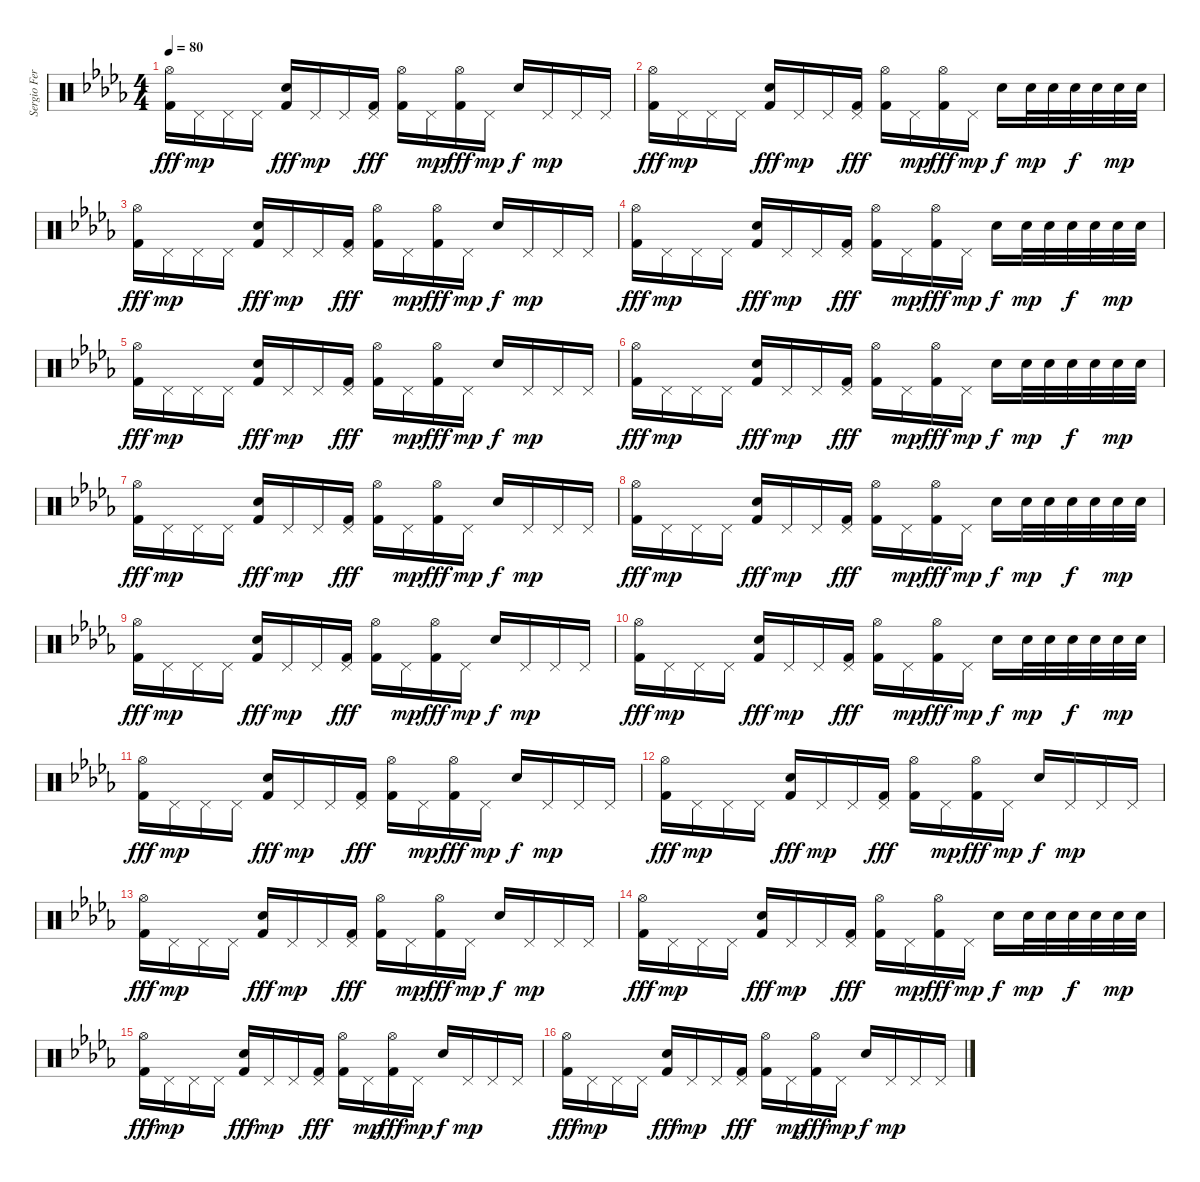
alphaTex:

\track ("Sergio Fernandez \"Taz\"" "Sergio Fer") {instrument percussion}
\staff {score}
\articulation defaults
\ts (4 4)
\tempo 80
\clef neutral
\ks bbminor
("Hi-Hat (open)" "Kick (hit) 2").16{dy fff} "Pedal Hi-Hat (hit)".16{dy mp} "Pedal Hi-Hat (hit)".16 "Pedal Hi-Hat (hit)".16 ("Electric Snare (hit)" "Kick (hit) 2").16{dy fff} "Pedal Hi-Hat (hit)".16{dy mp} "Pedal Hi-Hat (hit)".16 ("Pedal Hi-Hat (hit)" "Kick (hit) 2").16{dy fff} ("Hi-Hat (open)" "Kick (hit) 2").16 "Pedal Hi-Hat (hit)".16{dy mp} ("Hi-Hat (open)" "Kick (hit) 2").16{dy fff} "Pedal Hi-Hat (hit)".16{dy mp} "Electric Snare (hit)".16{dy f} "Pedal Hi-Hat (hit)".16{dy mp} "Pedal Hi-Hat (hit)".16 "Pedal Hi-Hat (hit)".16 |
("Hi-Hat (open)" "Kick (hit) 2").16{dy fff} "Pedal Hi-Hat (hit)".16{dy mp} "Pedal Hi-Hat (hit)".16 "Pedal Hi-Hat (hit)".16 ("Electric Snare (hit)" "Kick (hit) 2").16{dy fff} "Pedal Hi-Hat (hit)".16{dy mp} "Pedal Hi-Hat (hit)".16 ("Pedal Hi-Hat (hit)" "Kick (hit) 2").16{dy fff} ("Hi-Hat (open)" "Kick (hit) 2").16 "Pedal Hi-Hat (hit)".16{dy mp} ("Hi-Hat (open)" "Kick (hit) 2").16{dy fff} "Pedal Hi-Hat (hit)".16{dy mp} "Snare (hit) 2".16{dy f} "Snare (hit) 2".32{dy mp} "Snare (hit) 2".32 "Snare (hit) 2".32{dy f} "Snare (hit) 2".32 "Snare (hit) 2".32{dy mp} "Snare (hit) 2".32 |
("Hi-Hat (open)" "Kick (hit) 2").16{dy fff} "Pedal Hi-Hat (hit)".16{dy mp} "Pedal Hi-Hat (hit)".16 "Pedal Hi-Hat (hit)".16 ("Electric Snare (hit)" "Kick (hit) 2").16{dy fff} "Pedal Hi-Hat (hit)".16{dy mp} "Pedal Hi-Hat (hit)".16 ("Pedal Hi-Hat (hit)" "Kick (hit) 2").16{dy fff} ("Hi-Hat (open)" "Kick (hit) 2").16 "Pedal Hi-Hat (hit)".16{dy mp} ("Hi-Hat (open)" "Kick (hit) 2").16{dy fff} "Pedal Hi-Hat (hit)".16{dy mp} "Electric Snare (hit)".16{dy f} "Pedal Hi-Hat (hit)".16{dy mp} "Pedal Hi-Hat (hit)".16 "Pedal Hi-Hat (hit)".16 |
("Hi-Hat (open)" "Kick (hit) 2").16{dy fff} "Pedal Hi-Hat (hit)".16{dy mp} "Pedal Hi-Hat (hit)".16 "Pedal Hi-Hat (hit)".16 ("Electric Snare (hit)" "Kick (hit) 2").16{dy fff} "Pedal Hi-Hat (hit)".16{dy mp} "Pedal Hi-Hat (hit)".16 ("Pedal Hi-Hat (hit)" "Kick (hit) 2").16{dy fff} ("Hi-Hat (open)" "Kick (hit) 2").16 "Pedal Hi-Hat (hit)".16{dy mp} ("Hi-Hat (open)" "Kick (hit) 2").16{dy fff} "Pedal Hi-Hat (hit)".16{dy mp} "Snare (hit) 2".16{dy f} "Snare (hit) 2".32{dy mp} "Snare (hit) 2".32 "Snare (hit) 2".32{dy f} "Snare (hit) 2".32 "Snare (hit) 2".32{dy mp} "Snare (hit) 2".32 |
("Hi-Hat (open)" "Kick (hit) 2").16{dy fff} "Pedal Hi-Hat (hit)".16{dy mp} "Pedal Hi-Hat (hit)".16 "Pedal Hi-Hat (hit)".16 ("Electric Snare (hit)" "Kick (hit) 2").16{dy fff} "Pedal Hi-Hat (hit)".16{dy mp} "Pedal Hi-Hat (hit)".16 ("Pedal Hi-Hat (hit)" "Kick (hit) 2").16{dy fff} ("Hi-Hat (open)" "Kick (hit) 2").16 "Pedal Hi-Hat (hit)".16{dy mp} ("Hi-Hat (open)" "Kick (hit) 2").16{dy fff} "Pedal Hi-Hat (hit)".16{dy mp} "Electric Snare (hit)".16{dy f} "Pedal Hi-Hat (hit)".16{dy mp} "Pedal Hi-Hat (hit)".16 "Pedal Hi-Hat (hit)".16 |
("Hi-Hat (open)" "Kick (hit) 2").16{dy fff} "Pedal Hi-Hat (hit)".16{dy mp} "Pedal Hi-Hat (hit)".16 "Pedal Hi-Hat (hit)".16 ("Electric Snare (hit)" "Kick (hit) 2").16{dy fff} "Pedal Hi-Hat (hit)".16{dy mp} "Pedal Hi-Hat (hit)".16 ("Pedal Hi-Hat (hit)" "Kick (hit) 2").16{dy fff} ("Hi-Hat (open)" "Kick (hit) 2").16 "Pedal Hi-Hat (hit)".16{dy mp} ("Hi-Hat (open)" "Kick (hit) 2").16{dy fff} "Pedal Hi-Hat (hit)".16{dy mp} "Snare (hit) 2".16{dy f} "Snare (hit) 2".32{dy mp} "Snare (hit) 2".32 "Snare (hit) 2".32{dy f} "Snare (hit) 2".32 "Snare (hit) 2".32{dy mp} "Snare (hit) 2".32 |
("Hi-Hat (open)" "Kick (hit) 2").16{dy fff} "Pedal Hi-Hat (hit)".16{dy mp} "Pedal Hi-Hat (hit)".16 "Pedal Hi-Hat (hit)".16 ("Electric Snare (hit)" "Kick (hit) 2").16{dy fff} "Pedal Hi-Hat (hit)".16{dy mp} "Pedal Hi-Hat (hit)".16 ("Pedal Hi-Hat (hit)" "Kick (hit) 2").16{dy fff} ("Hi-Hat (open)" "Kick (hit) 2").16 "Pedal Hi-Hat (hit)".16{dy mp} ("Hi-Hat (open)" "Kick (hit) 2").16{dy fff} "Pedal Hi-Hat (hit)".16{dy mp} "Electric Snare (hit)".16{dy f} "Pedal Hi-Hat (hit)".16{dy mp} "Pedal Hi-Hat (hit)".16 "Pedal Hi-Hat (hit)".16 |
("Hi-Hat (open)" "Kick (hit) 2").16{dy fff} "Pedal Hi-Hat (hit)".16{dy mp} "Pedal Hi-Hat (hit)".16 "Pedal Hi-Hat (hit)".16 ("Electric Snare (hit)" "Kick (hit) 2").16{dy fff} "Pedal Hi-Hat (hit)".16{dy mp} "Pedal Hi-Hat (hit)".16 ("Pedal Hi-Hat (hit)" "Kick (hit) 2").16{dy fff} ("Hi-Hat (open)" "Kick (hit) 2").16 "Pedal Hi-Hat (hit)".16{dy mp} ("Hi-Hat (open)" "Kick (hit) 2").16{dy fff} "Pedal Hi-Hat (hit)".16{dy mp} "Snare (hit) 2".16{dy f} "Snare (hit) 2".32{dy mp} "Snare (hit) 2".32 "Snare (hit) 2".32{dy f} "Snare (hit) 2".32 "Snare (hit) 2".32{dy mp} "Snare (hit) 2".32 |
("Hi-Hat (open)" "Kick (hit) 2").16{dy fff} "Pedal Hi-Hat (hit)".16{dy mp} "Pedal Hi-Hat (hit)".16 "Pedal Hi-Hat (hit)".16 ("Electric Snare (hit)" "Kick (hit) 2").16{dy fff} "Pedal Hi-Hat (hit)".16{dy mp} "Pedal Hi-Hat (hit)".16 ("Pedal Hi-Hat (hit)" "Kick (hit) 2").16{dy fff} ("Hi-Hat (open)" "Kick (hit) 2").16 "Pedal Hi-Hat (hit)".16{dy mp} ("Hi-Hat (open)" "Kick (hit) 2").16{dy fff} "Pedal Hi-Hat (hit)".16{dy mp} "Electric Snare (hit)".16{dy f} "Pedal Hi-Hat (hit)".16{dy mp} "Pedal Hi-Hat (hit)".16 "Pedal Hi-Hat (hit)".16 |
("Hi-Hat (open)" "Kick (hit) 2").16{dy fff} "Pedal Hi-Hat (hit)".16{dy mp} "Pedal Hi-Hat (hit)".16 "Pedal Hi-Hat (hit)".16 ("Electric Snare (hit)" "Kick (hit) 2").16{dy fff} "Pedal Hi-Hat (hit)".16{dy mp} "Pedal Hi-Hat (hit)".16 ("Pedal Hi-Hat (hit)" "Kick (hit) 2").16{dy fff} ("Hi-Hat (open)" "Kick (hit) 2").16 "Pedal Hi-Hat (hit)".16{dy mp} ("Hi-Hat (open)" "Kick (hit) 2").16{dy fff} "Pedal Hi-Hat (hit)".16{dy mp} "Snare (hit) 2".16{dy f} "Snare (hit) 2".32{dy mp} "Snare (hit) 2".32 "Snare (hit) 2".32{dy f} "Snare (hit) 2".32 "Snare (hit) 2".32{dy mp} "Snare (hit) 2".32 |
("Hi-Hat (open)" "Kick (hit) 2").16{dy fff} "Pedal Hi-Hat (hit)".16{dy mp} "Pedal Hi-Hat (hit)".16 "Pedal Hi-Hat (hit)".16 ("Electric Snare (hit)" "Kick (hit) 2").16{dy fff} "Pedal Hi-Hat (hit)".16{dy mp} "Pedal Hi-Hat (hit)".16 ("Pedal Hi-Hat (hit)" "Kick (hit) 2").16{dy fff} ("Hi-Hat (open)" "Kick (hit) 2").16 "Pedal Hi-Hat (hit)".16{dy mp} ("Hi-Hat (open)" "Kick (hit) 2").16{dy fff} "Pedal Hi-Hat (hit)".16{dy mp} "Electric Snare (hit)".16{dy f} "Pedal Hi-Hat (hit)".16{dy mp} "Pedal Hi-Hat (hit)".16 "Pedal Hi-Hat (hit)".16 |
("Hi-Hat (open)" "Kick (hit) 2").16{dy fff} "Pedal Hi-Hat (hit)".16{dy mp} "Pedal Hi-Hat (hit)".16 "Pedal Hi-Hat (hit)".16 ("Electric Snare (hit)" "Kick (hit) 2").16{dy fff} "Pedal Hi-Hat (hit)".16{dy mp} "Pedal Hi-Hat (hit)".16 ("Pedal Hi-Hat (hit)" "Kick (hit) 2").16{dy fff} ("Hi-Hat (open)" "Kick (hit) 2").16 "Pedal Hi-Hat (hit)".16{dy mp} ("Hi-Hat (open)" "Kick (hit) 2").16{dy fff} "Pedal Hi-Hat (hit)".16{dy mp} "Electric Snare (hit)".16{dy f} "Pedal Hi-Hat (hit)".16{dy mp} "Pedal Hi-Hat (hit)".16 "Pedal Hi-Hat (hit)".16 |
("Hi-Hat (open)" "Kick (hit) 2").16{dy fff} "Pedal Hi-Hat (hit)".16{dy mp} "Pedal Hi-Hat (hit)".16 "Pedal Hi-Hat (hit)".16 ("Electric Snare (hit)" "Kick (hit) 2").16{dy fff} "Pedal Hi-Hat (hit)".16{dy mp} "Pedal Hi-Hat (hit)".16 ("Pedal Hi-Hat (hit)" "Kick (hit) 2").16{dy fff} ("Hi-Hat (open)" "Kick (hit) 2").16 "Pedal Hi-Hat (hit)".16{dy mp} ("Hi-Hat (open)" "Kick (hit) 2").16{dy fff} "Pedal Hi-Hat (hit)".16{dy mp} "Electric Snare (hit)".16{dy f} "Pedal Hi-Hat (hit)".16{dy mp} "Pedal Hi-Hat (hit)".16 "Pedal Hi-Hat (hit)".16 |
("Hi-Hat (open)" "Kick (hit) 2").16{dy fff} "Pedal Hi-Hat (hit)".16{dy mp} "Pedal Hi-Hat (hit)".16 "Pedal Hi-Hat (hit)".16 ("Electric Snare (hit)" "Kick (hit) 2").16{dy fff} "Pedal Hi-Hat (hit)".16{dy mp} "Pedal Hi-Hat (hit)".16 ("Pedal Hi-Hat (hit)" "Kick (hit) 2").16{dy fff} ("Hi-Hat (open)" "Kick (hit) 2").16 "Pedal Hi-Hat (hit)".16{dy mp} ("Hi-Hat (open)" "Kick (hit) 2").16{dy fff} "Pedal Hi-Hat (hit)".16{dy mp} "Snare (hit) 2".16{dy f} "Snare (hit) 2".32{dy mp} "Snare (hit) 2".32 "Snare (hit) 2".32{dy f} "Snare (hit) 2".32 "Snare (hit) 2".32{dy mp} "Snare (hit) 2".32 |
("Hi-Hat (open)" "Kick (hit) 2").16{dy fff} "Pedal Hi-Hat (hit)".16{dy mp} "Pedal Hi-Hat (hit)".16 "Pedal Hi-Hat (hit)".16 ("Electric Snare (hit)" "Kick (hit) 2").16{dy fff} "Pedal Hi-Hat (hit)".16{dy mp} "Pedal Hi-Hat (hit)".16 ("Pedal Hi-Hat (hit)" "Kick (hit) 2").16{dy fff} ("Hi-Hat (open)" "Kick (hit) 2").16 "Pedal Hi-Hat (hit)".16{dy mp} ("Hi-Hat (open)" "Kick (hit) 2").16{dy fff} "Pedal Hi-Hat (hit)".16{dy mp} "Electric Snare (hit)".16{dy f} "Pedal Hi-Hat (hit)".16{dy mp} "Pedal Hi-Hat (hit)".16 "Pedal Hi-Hat (hit)".16 |
("Hi-Hat (open)" "Kick (hit) 2").16{dy fff} "Pedal Hi-Hat (hit)".16{dy mp} "Pedal Hi-Hat (hit)".16 "Pedal Hi-Hat (hit)".16 ("Electric Snare (hit)" "Kick (hit) 2").16{dy fff} "Pedal Hi-Hat (hit)".16{dy mp} "Pedal Hi-Hat (hit)".16 ("Pedal Hi-Hat (hit)" "Kick (hit) 2").16{dy fff} ("Hi-Hat (open)" "Kick (hit) 2").16 "Pedal Hi-Hat (hit)".16{dy mp} ("Hi-Hat (open)" "Kick (hit) 2").16{dy fff} "Pedal Hi-Hat (hit)".16{dy mp} "Electric Snare (hit)".16{dy f} "Pedal Hi-Hat (hit)".16{dy mp} "Pedal Hi-Hat (hit)".16 "Pedal Hi-Hat (hit)".16
